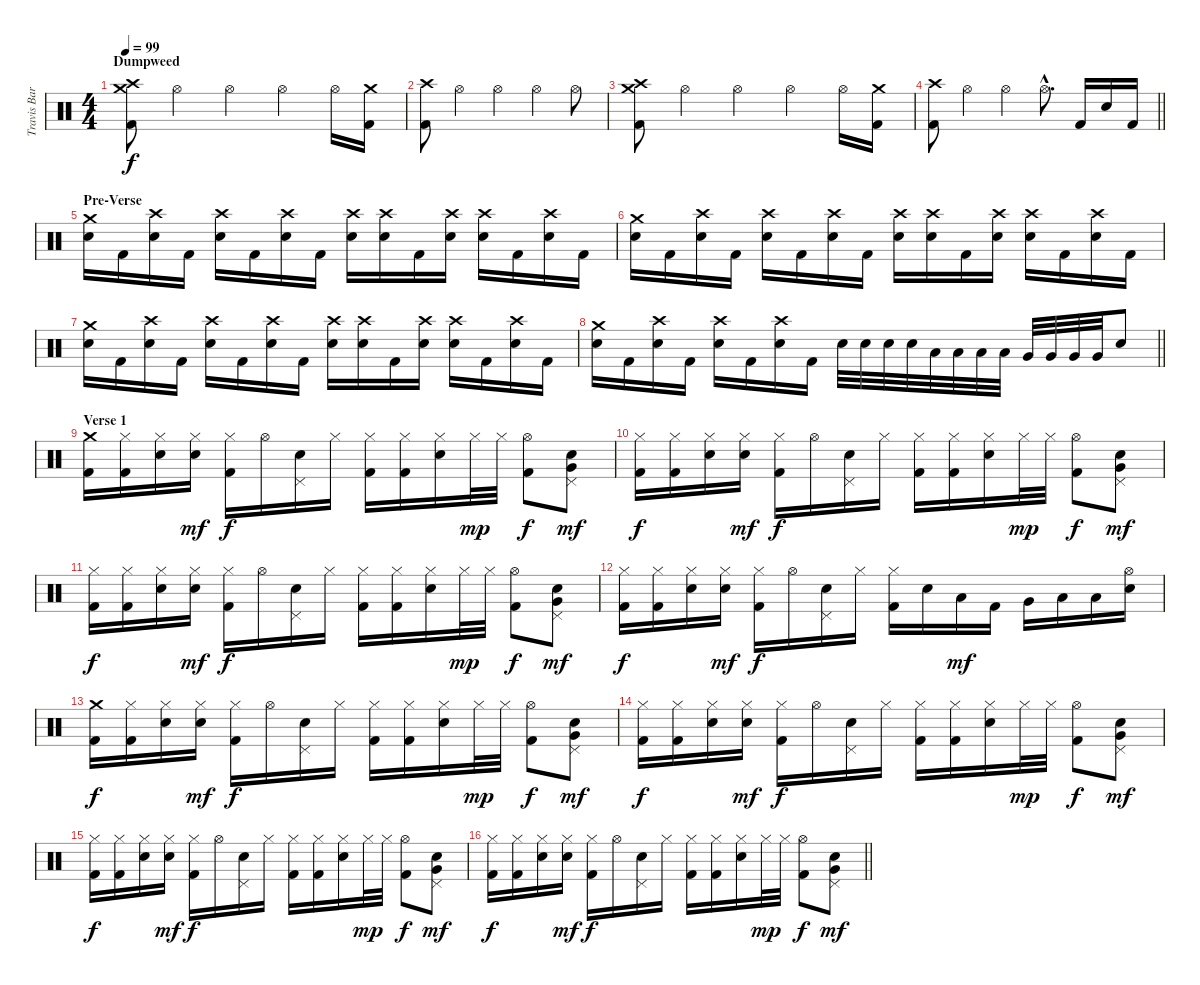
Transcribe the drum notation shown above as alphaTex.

\track ("Travis Barker" "Travis Bar") {instrument percussion}
\staff {score}
\articulation defaults
\ts (4 4)
\section ("" "Dumpweed")
\tempo 99
\clef neutral
\ks c
("Crash medium (hit)" "Crash high (hit)" "Kick (hit) 2").8{dy f} "Hi-Hat (open)".4 "Hi-Hat (open)".4 "Hi-Hat (open)".4 "Hi-Hat (open)".16 ("Crash medium (hit)" "Kick (hit) 2").16 |
("Crash high (hit)" "Kick (hit) 2").8 "Hi-Hat (open)".4 "Hi-Hat (open)".4 "Hi-Hat (open)".4 "Hi-Hat (open)".8 |
("Crash medium (hit)" "Crash high (hit)" "Kick (hit) 2").8 "Hi-Hat (open)".4 "Hi-Hat (open)".4 "Hi-Hat (open)".4 "Hi-Hat (open)".16 ("Crash medium (hit)" "Kick (hit) 2").16 |
\barLineRight lightlight
("Crash high (hit)" "Kick (hit) 2").8 "Hi-Hat (open)".4 "Hi-Hat (open)".4 "Hi-Hat (open)"{hac}.8{d} "Kick (hit) 2".16 "Electric Snare (hit)".16 "Kick (hit) 2".16 |
\section ("" "Pre-Verse")
("Crash medium (hit)" "Electric Snare (hit)").16 "Kick (hit) 2".16 ("Crash high (hit)" "Electric Snare (hit)").16 "Kick (hit) 2".16 ("Crash high (hit)" "Electric Snare (hit)").16 "Kick (hit) 2".16 ("Crash high (hit)" "Electric Snare (hit)").16 "Kick (hit) 2".16 ("Crash high (hit)" "Electric Snare (hit)").16 ("Crash high (hit)" "Electric Snare (hit)").16 "Kick (hit) 2".16 ("Crash high (hit)" "Electric Snare (hit)").16 ("Crash high (hit)" "Electric Snare (hit)").16 "Kick (hit) 2".16 ("Crash high (hit)" "Electric Snare (hit)").16 "Kick (hit) 2".16 |
("Crash medium (hit)" "Electric Snare (hit)").16 "Kick (hit) 2".16 ("Crash high (hit)" "Electric Snare (hit)").16 "Kick (hit) 2".16 ("Crash high (hit)" "Electric Snare (hit)").16 "Kick (hit) 2".16 ("Crash high (hit)" "Electric Snare (hit)").16 "Kick (hit) 2".16 ("Crash high (hit)" "Electric Snare (hit)").16 ("Crash high (hit)" "Electric Snare (hit)").16 "Kick (hit) 2".16 ("Crash high (hit)" "Electric Snare (hit)").16 ("Crash high (hit)" "Electric Snare (hit)").16 "Kick (hit) 2".16 ("Crash high (hit)" "Electric Snare (hit)").16 "Kick (hit) 2".16 |
("Crash medium (hit)" "Electric Snare (hit)").16 "Kick (hit) 2".16 ("Crash high (hit)" "Electric Snare (hit)").16 "Kick (hit) 2".16 ("Crash high (hit)" "Electric Snare (hit)").16 "Kick (hit) 2".16 ("Crash high (hit)" "Electric Snare (hit)").16 "Kick (hit) 2".16 ("Crash high (hit)" "Electric Snare (hit)").16 ("Crash high (hit)" "Electric Snare (hit)").16 "Kick (hit) 2".16 ("Crash high (hit)" "Electric Snare (hit)").16 ("Crash high (hit)" "Electric Snare (hit)").16 "Kick (hit) 2".16 ("Crash high (hit)" "Electric Snare (hit)").16 "Kick (hit) 2".16 |
\barLineRight lightlight
("Crash medium (hit)" "Electric Snare (hit)").16 "Kick (hit) 2".16 ("Crash high (hit)" "Electric Snare (hit)").16 "Kick (hit) 2".16 ("Crash high (hit)" "Electric Snare (hit)").16 "Kick (hit) 2".16 ("Crash high (hit)" "Electric Snare (hit)").16 "Kick (hit) 2".16 "Electric Snare (hit)".32 "Electric Snare (hit)".32 "Electric Snare (hit)".32 "Electric Snare (hit)".32 "Low Tom (hit)".32 "Low Tom (hit)".32 "Low Tom (hit)".32 "Low Tom (hit)".32 "Very Low Tom (hit)".32 "Very Low Tom (hit)".32 "Very Low Tom (hit)".32 "Very Low Tom (hit)".32 "Electric Snare (hit)".8 |
\section ("" "Verse 1")
("Crash medium (hit)" "Kick (hit) 2").16 ("Hi-Hat (closed)" "Kick (hit) 2").16 ("Hi-Hat (closed)" "Electric Snare (hit)").16 ("Hi-Hat (closed)" "Electric Snare (hit)").16{dy mf} ("Hi-Hat (closed)" "Kick (hit) 2").16{dy f} "Hi-Hat (open)".16 ("Pedal Hi-Hat (hit)" "Electric Snare (hit)").16 "Hi-Hat (closed)".16 ("Hi-Hat (closed)" "Kick (hit) 2").16 ("Hi-Hat (closed)" "Kick (hit) 2").16 ("Hi-Hat (closed)" "Electric Snare (hit)").16 "Hi-Hat (closed)".32{dy mp} "Hi-Hat (closed)".32 ("Hi-Hat (open)" "Kick (hit) 2").8{dy f} ("Pedal Hi-Hat (hit)" "Electric Snare (hit)" "Very Low Tom (hit)").8{dy mf} |
("Hi-Hat (closed)" "Kick (hit) 2").16{dy f} ("Hi-Hat (closed)" "Kick (hit) 2").16 ("Hi-Hat (closed)" "Electric Snare (hit)").16 ("Hi-Hat (closed)" "Electric Snare (hit)").16{dy mf} ("Hi-Hat (closed)" "Kick (hit) 2").16{dy f} "Hi-Hat (open)".16 ("Pedal Hi-Hat (hit)" "Electric Snare (hit)").16 "Hi-Hat (closed)".16 ("Hi-Hat (closed)" "Kick (hit) 2").16 ("Hi-Hat (closed)" "Kick (hit) 2").16 ("Hi-Hat (closed)" "Electric Snare (hit)").16 "Hi-Hat (closed)".32{dy mp} "Hi-Hat (closed)".32 ("Hi-Hat (open)" "Kick (hit) 2").8{dy f} ("Pedal Hi-Hat (hit)" "Electric Snare (hit)" "Very Low Tom (hit)").8{dy mf} |
("Hi-Hat (closed)" "Kick (hit) 2").16{dy f} ("Hi-Hat (closed)" "Kick (hit) 2").16 ("Hi-Hat (closed)" "Electric Snare (hit)").16 ("Hi-Hat (closed)" "Electric Snare (hit)").16{dy mf} ("Hi-Hat (closed)" "Kick (hit) 2").16{dy f} "Hi-Hat (open)".16 ("Pedal Hi-Hat (hit)" "Electric Snare (hit)").16 "Hi-Hat (closed)".16 ("Hi-Hat (closed)" "Kick (hit) 2").16 ("Hi-Hat (closed)" "Kick (hit) 2").16 ("Hi-Hat (closed)" "Electric Snare (hit)").16 "Hi-Hat (closed)".32{dy mp} "Hi-Hat (closed)".32 ("Hi-Hat (open)" "Kick (hit) 2").8{dy f} ("Pedal Hi-Hat (hit)" "Electric Snare (hit)" "Very Low Tom (hit)").8{dy mf} |
("Hi-Hat (closed)" "Kick (hit) 2").16{dy f} ("Hi-Hat (closed)" "Kick (hit) 2").16 ("Hi-Hat (closed)" "Electric Snare (hit)").16 ("Hi-Hat (closed)" "Electric Snare (hit)").16{dy mf} ("Hi-Hat (closed)" "Kick (hit) 2").16{dy f} "Hi-Hat (open)".16 ("Pedal Hi-Hat (hit)" "Electric Snare (hit)").16 "Hi-Hat (closed)".16 ("Hi-Hat (closed)" "Kick (hit) 2").16 "Electric Snare (hit)".16 "Low Tom (hit)".16{dy mf} "Kick (hit) 2".16 "Very Low Tom (hit)".16 "Low Floor Tom (hit)".16 "Low Tom (hit)".16 ("Hi-Hat (open)" "Electric Snare (hit)").16 |
("Crash medium (hit)" "Kick (hit) 2").16{dy f} ("Hi-Hat (closed)" "Kick (hit) 2").16 ("Hi-Hat (closed)" "Electric Snare (hit)").16 ("Hi-Hat (closed)" "Electric Snare (hit)").16{dy mf} ("Hi-Hat (closed)" "Kick (hit) 2").16{dy f} "Hi-Hat (open)".16 ("Pedal Hi-Hat (hit)" "Electric Snare (hit)").16 "Hi-Hat (closed)".16 ("Hi-Hat (closed)" "Kick (hit) 2").16 ("Hi-Hat (closed)" "Kick (hit) 2").16 ("Hi-Hat (closed)" "Electric Snare (hit)").16 "Hi-Hat (closed)".32{dy mp} "Hi-Hat (closed)".32 ("Hi-Hat (open)" "Kick (hit) 2").8{dy f} ("Pedal Hi-Hat (hit)" "Electric Snare (hit)" "Very Low Tom (hit)").8{dy mf} |
("Hi-Hat (closed)" "Kick (hit) 2").16{dy f} ("Hi-Hat (closed)" "Kick (hit) 2").16 ("Hi-Hat (closed)" "Electric Snare (hit)").16 ("Hi-Hat (closed)" "Electric Snare (hit)").16{dy mf} ("Hi-Hat (closed)" "Kick (hit) 2").16{dy f} "Hi-Hat (open)".16 ("Pedal Hi-Hat (hit)" "Electric Snare (hit)").16 "Hi-Hat (closed)".16 ("Hi-Hat (closed)" "Kick (hit) 2").16 ("Hi-Hat (closed)" "Kick (hit) 2").16 ("Hi-Hat (closed)" "Electric Snare (hit)").16 "Hi-Hat (closed)".32{dy mp} "Hi-Hat (closed)".32 ("Hi-Hat (open)" "Kick (hit) 2").8{dy f} ("Pedal Hi-Hat (hit)" "Electric Snare (hit)" "Very Low Tom (hit)").8{dy mf} |
("Hi-Hat (closed)" "Kick (hit) 2").16{dy f} ("Hi-Hat (closed)" "Kick (hit) 2").16 ("Hi-Hat (closed)" "Electric Snare (hit)").16 ("Hi-Hat (closed)" "Electric Snare (hit)").16{dy mf} ("Hi-Hat (closed)" "Kick (hit) 2").16{dy f} "Hi-Hat (open)".16 ("Pedal Hi-Hat (hit)" "Electric Snare (hit)").16 "Hi-Hat (closed)".16 ("Hi-Hat (closed)" "Kick (hit) 2").16 ("Hi-Hat (closed)" "Kick (hit) 2").16 ("Hi-Hat (closed)" "Electric Snare (hit)").16 "Hi-Hat (closed)".32{dy mp} "Hi-Hat (closed)".32 ("Hi-Hat (open)" "Kick (hit) 2").8{dy f} ("Pedal Hi-Hat (hit)" "Electric Snare (hit)" "Very Low Tom (hit)").8{dy mf} |
\barLineRight lightlight
("Hi-Hat (closed)" "Kick (hit) 2").16{dy f} ("Hi-Hat (closed)" "Kick (hit) 2").16 ("Hi-Hat (closed)" "Electric Snare (hit)").16 ("Hi-Hat (closed)" "Electric Snare (hit)").16{dy mf} ("Hi-Hat (closed)" "Kick (hit) 2").16{dy f} "Hi-Hat (open)".16 ("Pedal Hi-Hat (hit)" "Electric Snare (hit)").16 "Hi-Hat (closed)".16 ("Hi-Hat (closed)" "Kick (hit) 2").16 ("Hi-Hat (closed)" "Kick (hit) 2").16 ("Hi-Hat (closed)" "Electric Snare (hit)").16 "Hi-Hat (closed)".32{dy mp} "Hi-Hat (closed)".32 ("Hi-Hat (open)" "Kick (hit) 2").8{dy f} ("Pedal Hi-Hat (hit)" "Electric Snare (hit)" "Very Low Tom (hit)").8{dy mf}
